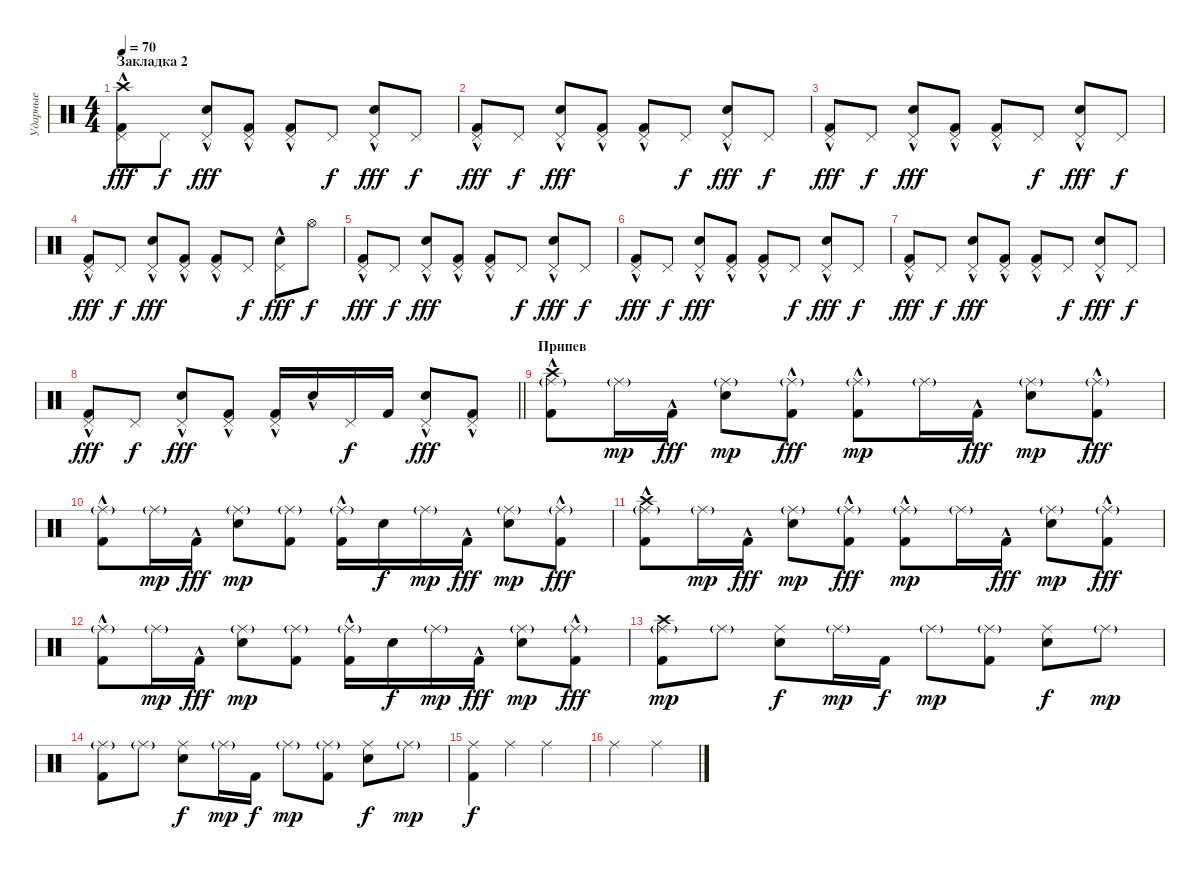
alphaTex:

\track ("Ударные" "Ударные") {instrument percussion}
\staff {score}
\articulation defaults
\ts (4 4)
\section ("" "Закладка 2")
\tempo 70
\clef neutral
\ks c
("Pedal Hi-Hat (hit)" "Kick (hit) 2"{hac} "Crash high (hit)").8{dy fff} "Pedal Hi-Hat (hit)".8{dy f} ("Snare (hit) 2"{hac} "Pedal Hi-Hat (hit)").8{dy fff} ("Pedal Hi-Hat (hit)" "Kick (hit) 2"{hac}).8 ("Pedal Hi-Hat (hit)" "Kick (hit) 2"{hac}).8 "Pedal Hi-Hat (hit)".8{dy f} ("Snare (hit) 2"{hac} "Pedal Hi-Hat (hit)").8{dy fff} "Pedal Hi-Hat (hit)".8{dy f} |
("Pedal Hi-Hat (hit)" "Kick (hit) 2"{hac}).8{dy fff} "Pedal Hi-Hat (hit)".8{dy f} ("Snare (hit) 2"{hac} "Pedal Hi-Hat (hit)").8{dy fff} ("Pedal Hi-Hat (hit)" "Kick (hit) 2"{hac}).8 ("Pedal Hi-Hat (hit)" "Kick (hit) 2"{hac}).8 "Pedal Hi-Hat (hit)".8{dy f} ("Snare (hit) 2"{hac} "Pedal Hi-Hat (hit)").8{dy fff} "Pedal Hi-Hat (hit)".8{dy f} |
("Pedal Hi-Hat (hit)" "Kick (hit) 2"{hac}).8{dy fff} "Pedal Hi-Hat (hit)".8{dy f} ("Snare (hit) 2"{hac} "Pedal Hi-Hat (hit)").8{dy fff} ("Pedal Hi-Hat (hit)" "Kick (hit) 2"{hac}).8 ("Pedal Hi-Hat (hit)" "Kick (hit) 2"{hac}).8 "Pedal Hi-Hat (hit)".8{dy f} ("Snare (hit) 2"{hac} "Pedal Hi-Hat (hit)").8{dy fff} "Pedal Hi-Hat (hit)".8{dy f} |
("Pedal Hi-Hat (hit)" "Kick (hit) 2"{hac}).8{dy fff} "Pedal Hi-Hat (hit)".8{dy f} ("Snare (hit) 2"{hac} "Pedal Hi-Hat (hit)").8{dy fff} ("Pedal Hi-Hat (hit)" "Kick (hit) 2"{hac}).8 ("Pedal Hi-Hat (hit)" "Kick (hit) 2"{hac}).8 "Pedal Hi-Hat (hit)".8{dy f} ("Snare (hit) 2"{hac} "Pedal Hi-Hat (hit)").8{dy fff} "Hi-Hat (open)".8{dy f} |
("Pedal Hi-Hat (hit)" "Kick (hit) 2"{hac}).8{dy fff} "Pedal Hi-Hat (hit)".8{dy f} ("Snare (hit) 2"{hac} "Pedal Hi-Hat (hit)").8{dy fff} ("Pedal Hi-Hat (hit)" "Kick (hit) 2"{hac}).8 ("Pedal Hi-Hat (hit)" "Kick (hit) 2"{hac}).8 "Pedal Hi-Hat (hit)".8{dy f} ("Snare (hit) 2"{hac} "Pedal Hi-Hat (hit)").8{dy fff} "Pedal Hi-Hat (hit)".8{dy f} |
("Pedal Hi-Hat (hit)" "Kick (hit) 2"{hac}).8{dy fff} "Pedal Hi-Hat (hit)".8{dy f} ("Snare (hit) 2"{hac} "Pedal Hi-Hat (hit)").8{dy fff} ("Pedal Hi-Hat (hit)" "Kick (hit) 2"{hac}).8 ("Pedal Hi-Hat (hit)" "Kick (hit) 2"{hac}).8 "Pedal Hi-Hat (hit)".8{dy f} ("Snare (hit) 2"{hac} "Pedal Hi-Hat (hit)").8{dy fff} "Pedal Hi-Hat (hit)".8{dy f} |
("Pedal Hi-Hat (hit)" "Kick (hit) 2"{hac}).8{dy fff} "Pedal Hi-Hat (hit)".8{dy f} ("Snare (hit) 2"{hac} "Pedal Hi-Hat (hit)").8{dy fff} ("Pedal Hi-Hat (hit)" "Kick (hit) 2"{hac}).8 ("Pedal Hi-Hat (hit)" "Kick (hit) 2"{hac}).8 "Pedal Hi-Hat (hit)".8{dy f} ("Snare (hit) 2"{hac} "Pedal Hi-Hat (hit)").8{dy fff} "Pedal Hi-Hat (hit)".8{dy f} |
\barLineRight lightlight
("Pedal Hi-Hat (hit)" "Kick (hit) 2"{hac}).8{dy fff} "Pedal Hi-Hat (hit)".8{dy f} ("Snare (hit) 2"{hac} "Pedal Hi-Hat (hit)").8{dy fff} ("Pedal Hi-Hat (hit)" "Kick (hit) 2"{hac}).8 ("Pedal Hi-Hat (hit)" "Kick (hit) 2"{hac}).16 "Snare (hit) 2"{hac}.16 "Pedal Hi-Hat (hit)".16{dy f} "Kick (hit) 2".16 ("Snare (hit) 2"{hac} "Pedal Hi-Hat (hit)").8{dy fff} ("Pedal Hi-Hat (hit)" "Kick (hit) 2"{hac}).8 |
\section ("" "Припев")
("Ride (middle)"{g} "Crash high (hit)" "Kick (hit) 2"{hac}).8 "Ride (middle)"{g}.16{dy mp} "Kick (hit) 2"{hac}.16{dy fff} ("Ride (middle)"{g} "Snare (hit) 2").8{dy mp} ("Ride (middle)"{g} "Kick (hit) 2"{hac}).8{dy fff} ("Kick (hit) 2"{hac} "Ride (middle)"{g}).8{dy mp} "Ride (middle)"{g}.16 "Kick (hit) 2"{hac}.16{dy fff} ("Ride (middle)"{g} "Snare (hit) 2").8{dy mp} ("Ride (middle)"{g} "Kick (hit) 2"{hac}).8{dy fff} |
("Ride (middle)"{g} "Kick (hit) 2"{hac}).8 "Ride (middle)"{g}.16{dy mp} "Kick (hit) 2"{hac}.16{dy fff} ("Ride (middle)"{g} "Snare (hit) 2").8{dy mp} ("Ride (middle)"{g} "Kick (hit) 2").8 ("Kick (hit) 2"{hac} "Ride (middle)"{g}).16 "Snare (hit) 2".16{dy f} "Ride (middle)"{g}.16{dy mp} "Kick (hit) 2"{hac}.16{dy fff} ("Ride (middle)"{g} "Snare (hit) 2").8{dy mp} ("Ride (middle)"{g} "Kick (hit) 2"{hac}).8{dy fff} |
("Ride (middle)"{g} "Crash high (hit)" "Kick (hit) 2"{hac}).8 "Ride (middle)"{g}.16{dy mp} "Kick (hit) 2"{hac}.16{dy fff} ("Ride (middle)"{g} "Snare (hit) 2").8{dy mp} ("Ride (middle)"{g} "Kick (hit) 2"{hac}).8{dy fff} ("Kick (hit) 2"{hac} "Ride (middle)"{g}).8{dy mp} "Ride (middle)"{g}.16 "Kick (hit) 2"{hac}.16{dy fff} ("Ride (middle)"{g} "Snare (hit) 2").8{dy mp} ("Ride (middle)"{g} "Kick (hit) 2"{hac}).8{dy fff} |
("Ride (middle)"{g} "Kick (hit) 2"{hac}).8 "Ride (middle)"{g}.16{dy mp} "Kick (hit) 2"{hac}.16{dy fff} ("Ride (middle)"{g} "Snare (hit) 2").8{dy mp} ("Ride (middle)"{g} "Kick (hit) 2").8 ("Kick (hit) 2"{hac} "Ride (middle)"{g}).16 "Snare (hit) 2".16{dy f} "Ride (middle)"{g}.16{dy mp} "Kick (hit) 2"{hac}.16{dy fff} ("Ride (middle)"{g} "Snare (hit) 2").8{dy mp} ("Ride (middle)"{g} "Kick (hit) 2"{hac}).8{dy fff} |
("Ride (middle)"{g} "Kick (hit) 2" "Crash high (hit)").8{dy mp} "Ride (middle)"{g}.8 ("Snare (hit) 2" "Ride (middle)").8{dy f} "Ride (middle)"{g}.16{dy mp} "Kick (hit) 2".16{dy f} "Ride (middle)"{g}.8{dy mp} ("Kick (hit) 2" "Ride (middle)"{g}).8 ("Ride (middle)" "Snare (hit) 2").8{dy f} "Ride (middle)"{g}.8{dy mp} |
("Ride (middle)"{g} "Kick (hit) 2").8 "Ride (middle)"{g}.8 ("Snare (hit) 2" "Ride (middle)").8{dy f} "Ride (middle)"{g}.16{dy mp} "Kick (hit) 2".16{dy f} "Ride (middle)"{g}.8{dy mp} ("Kick (hit) 2" "Ride (middle)"{g}).8 ("Ride (middle)" "Snare (hit) 2").8{dy f} "Ride (middle)"{g}.8{dy mp} |
("Ride (middle)" "Kick (hit) 2").4{dy f} "Ride (middle)".4 "Ride (middle)".2 |
"Ride (middle)".2 "Ride (middle)".2
